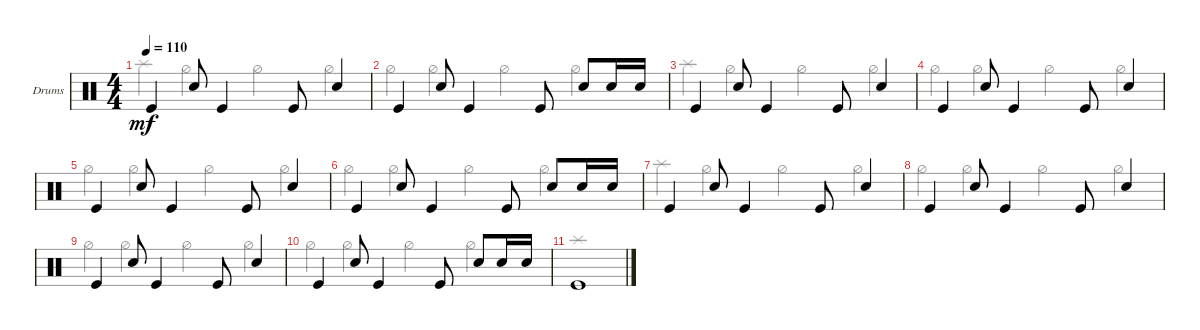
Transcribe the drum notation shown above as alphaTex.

\defaultSystemsLayout 4
\bracketExtendMode groupsimilarinstruments
\firstSystemTrackNameOrientation horizontal
\otherSystemsTrackNameOrientation horizontal
\track ("Drumkit" "Drums") {instrument percussion}
\staff {score}
\articulation defaults
\voice
\ts (4 4)
\tempo 110
\clef neutral
\scale
0.333333
\ks c "Kick (hit)".4{dy mf} "Snare (hit) 2".8 "Kick (hit)".4 "Kick (hit)".8 "Snare (hit) 2".4
|
\scale
0.333333 "Kick (hit)".4 "Snare (hit) 2".8 "Kick (hit)".4 "Kick (hit)".8 "Snare (hit) 2".8 "Snare (hit) 2".16 "Snare (hit) 2".16 |
"Kick (hit)".4 "Snare (hit) 2".8 "Kick (hit)".4 "Kick (hit)".8 "Snare (hit) 2".4 |
"Kick (hit)".4 "Snare (hit) 2".8 "Kick (hit)".4 "Kick (hit)".8 "Snare (hit) 2".4 |
"Kick (hit)".4 "Snare (hit) 2".8 "Kick (hit)".4 "Kick (hit)".8 "Snare (hit) 2".4 |
"Kick (hit)".4 "Snare (hit) 2".8 "Kick (hit)".4 "Kick (hit)".8 "Snare (hit) 2".8 "Snare (hit) 2".16 "Snare (hit) 2".16 |
"Kick (hit)".4 "Snare (hit) 2".8 "Kick (hit)".4 "Kick (hit)".8 "Snare (hit) 2".4 |
"Kick (hit)".4 "Snare (hit) 2".8 "Kick (hit)".4 "Kick (hit)".8 "Snare (hit) 2".4 |
"Kick (hit)".4 "Snare (hit) 2".8 "Kick (hit)".4 "Kick (hit)".8 "Snare (hit) 2".4 |
"Kick (hit)".4 "Snare (hit) 2".8 "Kick (hit)".4 "Kick (hit)".8 "Snare (hit) 2".8 "Snare (hit) 2".16 "Snare (hit) 2".16 |
"Kick (hit)".1 |
|
|
|
|
\voice
\clef neutral
\ottava regular
\simile none
\scale
0.333333
\ks c "Splash (hit)".4{dy mf} "Hi-Hat (half)".4 "Hi-Hat (half)".4 "Hi-Hat (half)".4
|
\scale
0.333333 "Hi-Hat (half)".4 "Hi-Hat (half)".4 "Hi-Hat (half)".4 "Hi-Hat (half)".4 |
"Splash (hit)".4 "Hi-Hat (half)".4 "Hi-Hat (half)".4 "Hi-Hat (half)".4 |
"Hi-Hat (half)".4 "Hi-Hat (half)".4 "Hi-Hat (half)".4 "Hi-Hat (half)".4 |
"Hi-Hat (half)".4 "Hi-Hat (half)".4 "Hi-Hat (half)".4 "Hi-Hat (half)".4 |
"Hi-Hat (half)".4 "Hi-Hat (half)".4 "Hi-Hat (half)".4 "Hi-Hat (half)".4 |
"Splash (hit)".4 "Hi-Hat (half)".4 "Hi-Hat (half)".4 "Hi-Hat (half)".4 |
"Hi-Hat (half)".4 "Hi-Hat (half)".4 "Hi-Hat (half)".4 "Hi-Hat (half)".4 |
"Hi-Hat (half)".4 "Hi-Hat (half)".4 "Hi-Hat (half)".4 "Hi-Hat (half)".4 |
"Hi-Hat (half)".4 "Hi-Hat (half)".4 "Hi-Hat (half)".4 "Hi-Hat (half)".4 |
"Splash (hit)".1 |
|
|
|
|
